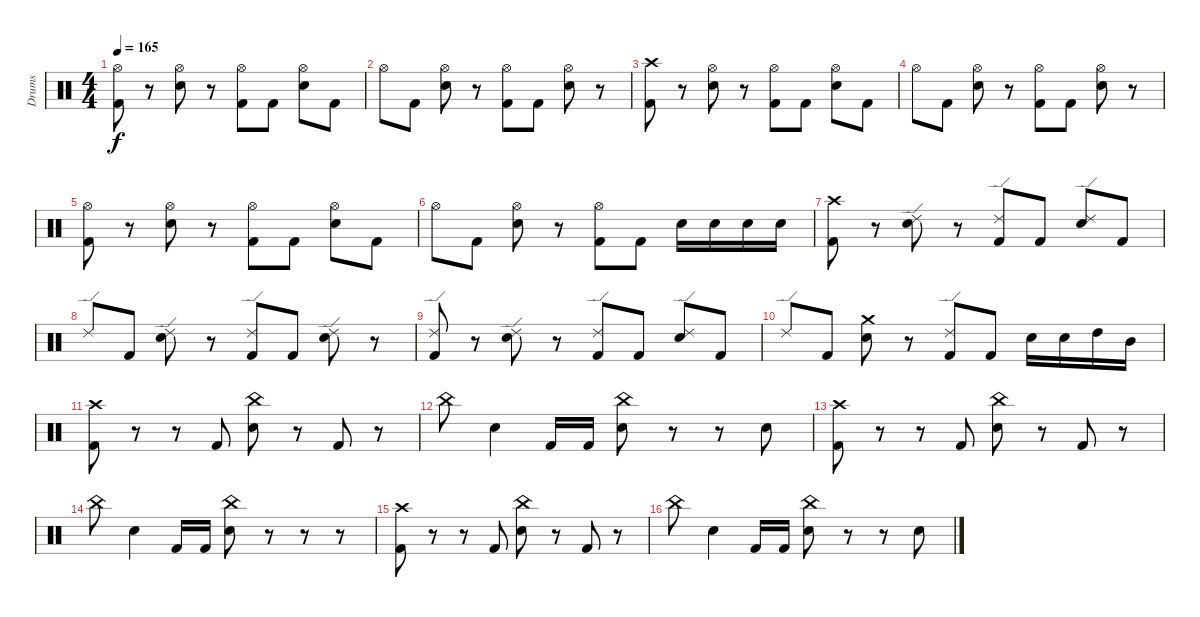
\track ("Drums" "Drums") {instrument percussion}
\staff {score}
\articulation defaults
\ts (4 4)
\tempo 165
\clef neutral
\ks c
("Hi-Hat (open)" "Kick (hit) 2").8{dy f} r.8 ("Hi-Hat (open)" "Electric Snare (hit)").8 r.8 ("Hi-Hat (open)" "Kick (hit) 2").8 "Kick (hit) 2".8 ("Hi-Hat (open)" "Electric Snare (hit)").8 "Kick (hit) 2".8 |
"Hi-Hat (open)".8 "Kick (hit) 2".8 ("Hi-Hat (open)" "Electric Snare (hit)").8 r.8 ("Hi-Hat (open)" "Kick (hit) 2").8 "Kick (hit) 2".8 ("Hi-Hat (open)" "Electric Snare (hit)").8 r.8 |
("Crash high (hit)" "Kick (hit) 2").8 r.8 ("Hi-Hat (open)" "Electric Snare (hit)").8 r.8 ("Hi-Hat (open)" "Kick (hit) 2").8 "Kick (hit) 2".8 ("Hi-Hat (open)" "Electric Snare (hit)").8 "Kick (hit) 2".8 |
"Hi-Hat (open)".8 "Kick (hit) 2".8 ("Hi-Hat (open)" "Electric Snare (hit)").8 r.8 ("Hi-Hat (open)" "Kick (hit) 2").8 "Kick (hit) 2".8 ("Hi-Hat (open)" "Electric Snare (hit)").8 r.8 |
("Hi-Hat (open)" "Kick (hit) 2").8 r.8 ("Hi-Hat (open)" "Electric Snare (hit)").8 r.8 ("Hi-Hat (open)" "Kick (hit) 2").8 "Kick (hit) 2".8 ("Hi-Hat (open)" "Electric Snare (hit)").8 "Kick (hit) 2".8 |
"Hi-Hat (open)".8 "Kick (hit) 2".8 ("Hi-Hat (open)" "Electric Snare (hit)").8 r.8 ("Hi-Hat (open)" "Kick (hit) 2").8 "Kick (hit) 2".8 "Electric Snare (hit)".16 "Electric Snare (hit)".16 "Electric Snare (hit)".16 "Electric Snare (hit)".16 |
("Crash high (hit)" "Kick (hit) 2").8 r.8 ("Ride (edge) 2" "Electric Snare (hit)").8 r.8 ("Ride (edge) 2" "Kick (hit) 2").8 "Kick (hit) 2".8 ("Ride (edge) 2" "Electric Snare (hit)").8 "Kick (hit) 2".8 |
"Ride (edge) 2".8 "Kick (hit) 2".8 ("Ride (edge) 2" "Electric Snare (hit)").8 r.8 ("Ride (edge) 2" "Kick (hit) 2").8 "Kick (hit) 2".8 ("Ride (edge) 2" "Electric Snare (hit)").8 r.8 |
("Ride (edge) 2" "Kick (hit) 2").8 r.8 ("Ride (edge) 2" "Electric Snare (hit)").8 r.8 ("Ride (edge) 2" "Kick (hit) 2").8 "Kick (hit) 2".8 ("Ride (edge) 2" "Electric Snare (hit)").8 "Kick (hit) 2".8 |
"Ride (edge) 2".8 "Kick (hit) 2".8 ("Crash medium (hit)" "Electric Snare (hit)").8 r.8 ("Ride (edge) 2" "Kick (hit) 2").8 "Kick (hit) 2".8 "Electric Snare (hit)".16 "Electric Snare (hit)".16 "High Tom (hit)".16 "Mid Tom (hit)".16 |
("Crash high (hit)" "Kick (hit) 2").8 r.8 r.8 "Kick (hit) 2".8 ("China (hit)" "Electric Snare (hit)").8 r.8 "Kick (hit) 2".8 r.8 |
"China (hit)".8 "Electric Snare (hit)".4 "Kick (hit) 2".16 "Kick (hit) 2".16 ("China (hit)" "Electric Snare (hit)").8 r.8 r.8 "Electric Snare (hit)".8 |
("Crash high (hit)" "Kick (hit) 2").8 r.8 r.8 "Kick (hit) 2".8 ("China (hit)" "Electric Snare (hit)").8 r.8 "Kick (hit) 2".8 r.8 |
"China (hit)".8 "Electric Snare (hit)".4 "Kick (hit) 2".16 "Kick (hit) 2".16 ("China (hit)" "Electric Snare (hit)").8 r.8 r.8 r.8 |
("Crash high (hit)" "Kick (hit) 2").8 r.8 r.8 "Kick (hit) 2".8 ("China (hit)" "Electric Snare (hit)").8 r.8 "Kick (hit) 2".8 r.8 |
"China (hit)".8 "Electric Snare (hit)".4 "Kick (hit) 2".16 "Kick (hit) 2".16 ("China (hit)" "Electric Snare (hit)").8 r.8 r.8 "Electric Snare (hit)".8
